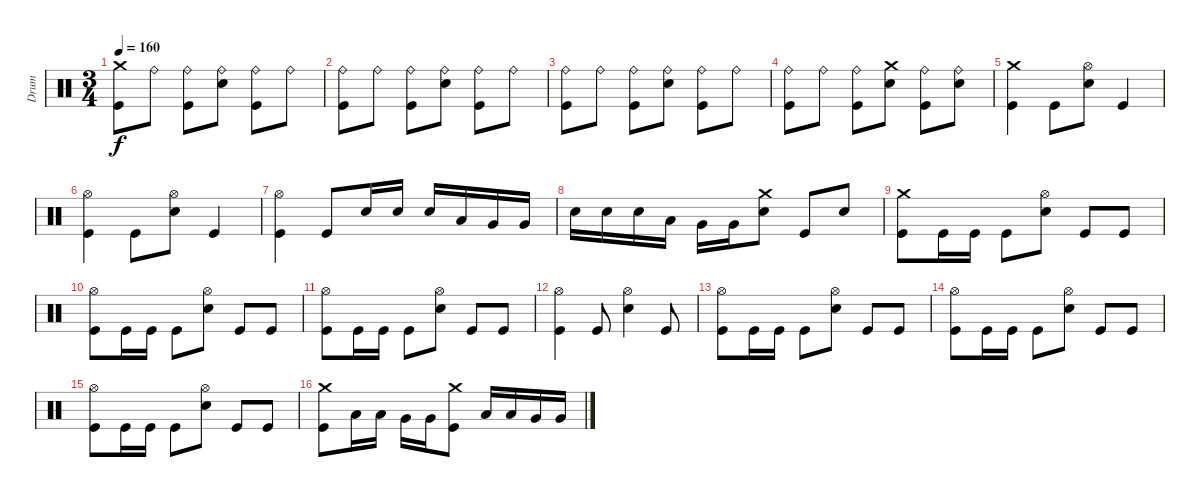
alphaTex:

\track ("Drum" "Drum") {instrument percussion}
\staff {score}
\articulation defaults
\ts (3 4)
\tempo 160
\clef neutral
\ks c
("Kick (hit)" "Crash medium (hit)").8{dy f} "Ride (bell)".8 ("Kick (hit)" "Ride (bell)").8 ("Electric Snare (hit)" "Ride (bell)").8 ("Kick (hit)" "Ride (bell)").8 "Ride (bell)".8 |
("Kick (hit)" "Ride (bell)").8 "Ride (bell)".8 ("Kick (hit)" "Ride (bell)").8 ("Electric Snare (hit)" "Ride (bell)").8 ("Kick (hit)" "Ride (bell)").8 "Ride (bell)".8 |
("Kick (hit)" "Ride (bell)").8 "Ride (bell)".8 ("Kick (hit)" "Ride (bell)").8 ("Electric Snare (hit)" "Ride (bell)").8 ("Kick (hit)" "Ride (bell)").8 "Ride (bell)".8 |
("Kick (hit)" "Ride (bell)").8 "Ride (bell)".8 ("Kick (hit)" "Ride (bell)").8 ("Electric Snare (hit)" "Crash medium (hit)").8 ("Kick (hit)" "Ride (bell)").8 ("Electric Snare (hit)" "Ride (bell)").8 |
("Kick (hit)" "Crash medium (hit)").4 "Kick (hit)".8 ("Electric Snare (hit)" "Hi-Hat (open)").8 "Kick (hit)".4 |
("Kick (hit)" "Hi-Hat (open)").4 "Kick (hit)".8 ("Electric Snare (hit)" "Hi-Hat (open)").8 "Kick (hit)".4 |
("Kick (hit)" "Hi-Hat (open)").4 "Kick (hit)".8 "Electric Snare (hit)".16 "Electric Snare (hit)".16 "Electric Snare (hit)".16 "Low Tom (hit)".16 "Very Low Tom (hit)".16 "Very Low Tom (hit)".16 |
"Electric Snare (hit)".16 "Electric Snare (hit)".16 "Electric Snare (hit)".16 "Low Tom (hit)".16 "Very Low Tom (hit)".16 "Very Low Tom (hit)".16 ("Electric Snare (hit)" "Crash medium (hit)").8 "Kick (hit)".8 "Electric Snare (hit)".8 |
("Kick (hit)" "Crash medium (hit)").8 "Kick (hit)".16 "Kick (hit)".16 "Kick (hit)".8 ("Electric Snare (hit)" "Hi-Hat (open)").8 "Kick (hit)".8 "Kick (hit)".8 |
("Kick (hit)" "Hi-Hat (open)").8 "Kick (hit)".16 "Kick (hit)".16 "Kick (hit)".8 ("Electric Snare (hit)" "Hi-Hat (open)").8 "Kick (hit)".8 "Kick (hit)".8 |
("Kick (hit)" "Hi-Hat (open)").8 "Kick (hit)".16 "Kick (hit)".16 "Kick (hit)".8 ("Electric Snare (hit)" "Hi-Hat (open)").8 "Kick (hit)".8 "Kick (hit)".8 |
("Kick (hit)" "Hi-Hat (open)").4 "Kick (hit)".8 ("Electric Snare (hit)" "Hi-Hat (open)").4 "Kick (hit)".8 |
("Kick (hit)" "Hi-Hat (open)").8 "Kick (hit)".16 "Kick (hit)".16 "Kick (hit)".8 ("Electric Snare (hit)" "Hi-Hat (open)").8 "Kick (hit)".8 "Kick (hit)".8 |
("Kick (hit)" "Hi-Hat (open)").8 "Kick (hit)".16 "Kick (hit)".16 "Kick (hit)".8 ("Electric Snare (hit)" "Hi-Hat (open)").8 "Kick (hit)".8 "Kick (hit)".8 |
("Kick (hit)" "Hi-Hat (open)").8 "Kick (hit)".16 "Kick (hit)".16 "Kick (hit)".8 ("Electric Snare (hit)" "Hi-Hat (open)").8 "Kick (hit)".8 "Kick (hit)".8 |
("Kick (hit)" "Crash medium (hit)").8 "Low Tom (hit)".16 "Low Tom (hit)".16 "Very Low Tom (hit)".16 "Very Low Tom (hit)".16 ("Kick (hit)" "Crash medium (hit)").8 "Low Tom (hit)".16 "Low Tom (hit)".16 "Very Low Tom (hit)".16 "Very Low Tom (hit)".16
